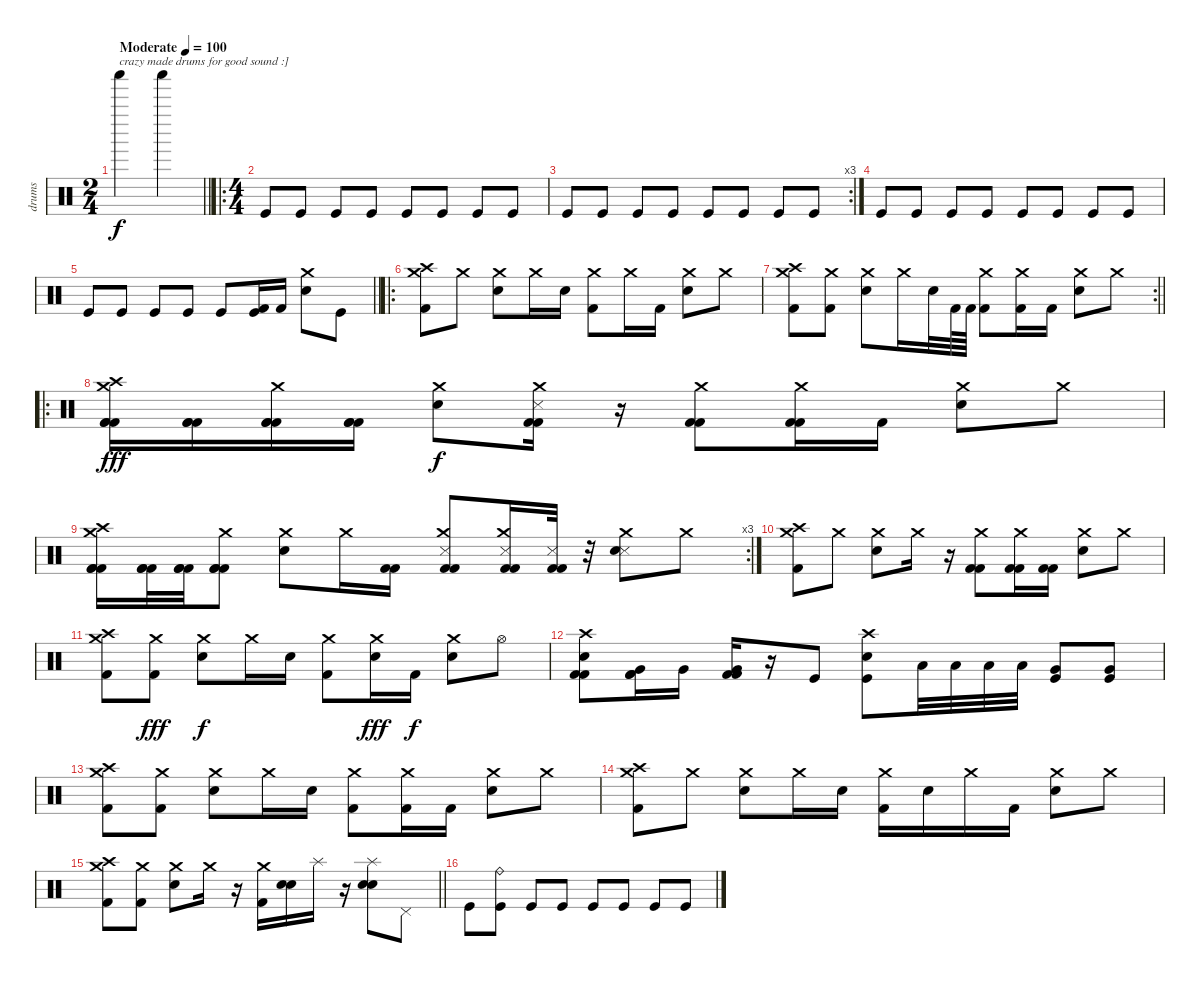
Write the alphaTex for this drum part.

\track ("drums" "drums") {instrument percussion}
\staff {score}
\articulation defaults
\ts (2 4)
\tempo (100 "Moderate")
\clef neutral
\barLineRight lightlight
\ks c "Shaker (hit)".4{txt "crazy made drums for good sound :]" dy f} "Shaker (hit)".4
|
\ro
\ts (4 4)
"Kick (hit)".8 "Kick (hit)".8 "Kick (hit)".8 "Kick (hit)".8 "Kick (hit)".8 "Kick (hit)".8 "Kick (hit)".8 "Kick (hit)".8 |
\rc 3 "Kick (hit)".8 "Kick (hit)".8 "Kick (hit)".8 "Kick (hit)".8 "Kick (hit)".8 "Kick (hit)".8 "Kick (hit)".8 "Kick (hit)".8
|
"Kick (hit)".8 "Kick (hit)".8 "Kick (hit)".8 "Kick (hit)".8 "Kick (hit)".8 "Kick (hit)".8 "Kick (hit)".8 "Kick (hit)".8 |
\barLineRight lightlight "Kick (hit)".8 "Kick (hit)".8 "Kick (hit)".8 "Kick (hit)".8 "Kick (hit)".8
("Kick (hit) 2" "Kick (hit)").16 "Kick (hit) 2".16 ("Electric Snare (hit)" "Crash medium (hit)").8 "Kick (hit)".8 |
\ro
("Crash medium (hit)" "Crash high (hit)" "Kick (hit) 2").8 "Crash medium (hit)".8 ("Crash medium (hit)" "Electric Snare (hit)").8 "Crash medium (hit)".16 "Electric Snare (hit)".16 ("Crash medium (hit)" "Kick (hit) 2").8 "Crash medium (hit)".16 "Kick (hit) 2".16 ("Crash medium (hit)" "Electric Snare (hit)").8 "Crash medium (hit)".8 |
\rc 2
\barLineRight lightlight
("Crash medium (hit)" "Crash high (hit)" "Kick (hit) 2").8 ("Crash medium (hit)" "Kick (hit) 2").8 ("Crash medium (hit)" "Electric Snare (hit)").8 "Crash medium (hit)".16 "Electric Snare (hit)".32 "Kick (hit) 2".64 "Kick (hit) 2".64 ("Crash medium (hit)" "Kick (hit) 2").8 ("Crash medium (hit)" "Kick (hit) 2").16 "Kick (hit) 2".16 ("Crash medium (hit)" "Electric Snare (hit)").8 "Crash medium (hit)".8 |
\ro
("Kick (hit) 2" "Kick (hit) 2" "Kick (hit) 2" "Crash high (hit)" "Crash medium (hit)").16{dy fff} ("Kick (hit) 2" "Kick (hit) 2" "Kick (hit) 2").16 ("Kick (hit) 2" "Kick (hit) 2" "Kick (hit) 2" "Crash medium (hit)").16 ("Kick (hit) 2" "Kick (hit) 2" "Kick (hit) 2").16 ("Crash medium (hit)" "Electric Snare (hit)").8{dy f} ("Snare (side stick) 3" "Crash medium (hit)" "Kick (hit) 2" "Kick (hit) 2").16 r.16 ("Crash medium (hit)" "Kick (hit) 2" "Kick (hit) 2").8 ("Crash medium (hit)" "Kick (hit) 2" "Kick (hit) 2").16 "Kick (hit) 2".16 ("Crash medium (hit)" "Electric Snare (hit)").8 "Crash medium (hit)".8 |
\rc 3
("Crash medium (hit)" "Crash high (hit)" "Kick (hit) 2" "Kick (hit) 2" "Kick (hit) 2").16 ("Kick (hit) 2" "Kick (hit) 2" "Kick (hit) 2").32 ("Kick (hit) 2" "Kick (hit) 2" "Kick (hit) 2").32 ("Crash medium (hit)" "Kick (hit) 2" "Kick (hit) 2" "Kick (hit) 2").8 ("Crash medium (hit)" "Electric Snare (hit)").8 "Crash medium (hit)".16 ("Kick (hit) 2" "Kick (hit) 2").16 ("Snare (side stick) 3" "Crash medium (hit)" "Kick (hit) 2" "Kick (hit) 2").8 ("Snare (side stick) 3" "Crash medium (hit)" "Kick (hit) 2" "Kick (hit) 2").16 ("Snare (side stick) 3" "Kick (hit) 2" "Kick (hit) 2").32 r.32 ("Snare (side stick) 3" "Crash medium (hit)" "Electric Snare (hit)").8 "Crash medium (hit)".8 |
("Crash medium (hit)" "Crash high (hit)" "Kick (hit) 2").8 "Crash medium (hit)".8 ("Crash medium (hit)" "Electric Snare (hit)").8 "Crash medium (hit)".16 r.16 ("Crash medium (hit)" "Kick (hit) 2" "Kick (hit) 2").8 ("Crash medium (hit)" "Kick (hit) 2" "Kick (hit) 2").16 ("Kick (hit) 2" "Kick (hit) 2").16 ("Crash medium (hit)" "Electric Snare (hit)").8 "Crash medium (hit)".8 |
("Crash medium (hit)" "Crash high (hit)" "Kick (hit) 2").8 ("Crash medium (hit)" "Kick (hit) 2").8{dy fff} ("Crash medium (hit)" "Electric Snare (hit)").8{dy f} "Crash medium (hit)".16 "Electric Snare (hit)".16 ("Crash medium (hit)" "Kick (hit) 2").8 ("Crash medium (hit)" "Electric Snare (hit)").16{dy fff} "Kick (hit) 2".16{dy f} ("Crash medium (hit)" "Electric Snare (hit)").8 "Hi-Hat (open)".8 |
("Crash high (hit)" "Kick (hit) 2" "Electric Snare (hit)" "Kick (hit) 2").8 ("Kick (hit) 2" "Very Low Tom (hit)" "Kick (hit) 2").16 "Very Low Tom (hit)".16 ("Kick (hit) 2" "Very Low Tom (hit)" "Kick (hit) 2").16 r.16 "Kick (hit)".8 ("Crash high (hit)" "Electric Snare (hit)" "Kick (hit)").8 "Low Tom (hit)".32 "Low Tom (hit)".32 "Low Tom (hit)".32 "Low Tom (hit)".32 ("Very Low Tom (hit)" "Kick (hit)").8 ("Very Low Tom (hit)" "Kick (hit)").8 |
("Crash medium (hit)" "Crash high (hit)" "Kick (hit) 2").8 ("Crash medium (hit)" "Kick (hit) 2").8 ("Crash medium (hit)" "Electric Snare (hit)").8 "Crash medium (hit)".16 "Electric Snare (hit)".16 ("Crash medium (hit)" "Kick (hit) 2").8 ("Crash medium (hit)" "Kick (hit) 2").16 "Kick (hit) 2".16 ("Crash medium (hit)" "Electric Snare (hit)").8 "Crash medium (hit)".8 |
("Crash medium (hit)" "Crash high (hit)" "Kick (hit) 2").8 "Crash medium (hit)".8 ("Crash medium (hit)" "Electric Snare (hit)").8 "Crash medium (hit)".16 "Electric Snare (hit)".16 ("Crash medium (hit)" "Kick (hit) 2").16 "Electric Snare (hit)".16 "Crash medium (hit)".16 "Kick (hit) 2".16 ("Crash medium (hit)" "Electric Snare (hit)").8 "Crash medium (hit)".8 |
\barLineRight lightlight
("Crash medium (hit)" "Crash high (hit)" "Kick (hit) 2").8 ("Crash medium (hit)" "Kick (hit) 2").8 ("Crash medium (hit)" "Electric Snare (hit)").8 "Crash medium (hit)".16 r.16 ("Crash medium (hit)" "Kick (hit) 2").16 ("Electric Snare (hit)" "Electric Snare (hit)").16 "Splash (hit)".16 r.16 ("Splash (hit)" "Electric Snare (hit)" "Electric Snare (hit)").8 "Pedal Hi-Hat (hit)".8 |
"Kick (hit)".8 ("Ride (bell)" "Kick (hit)").8 "Kick (hit)".8 "Kick (hit)".8 "Kick (hit)".8 "Kick (hit)".8 "Kick (hit)".8 "Kick (hit)".8
